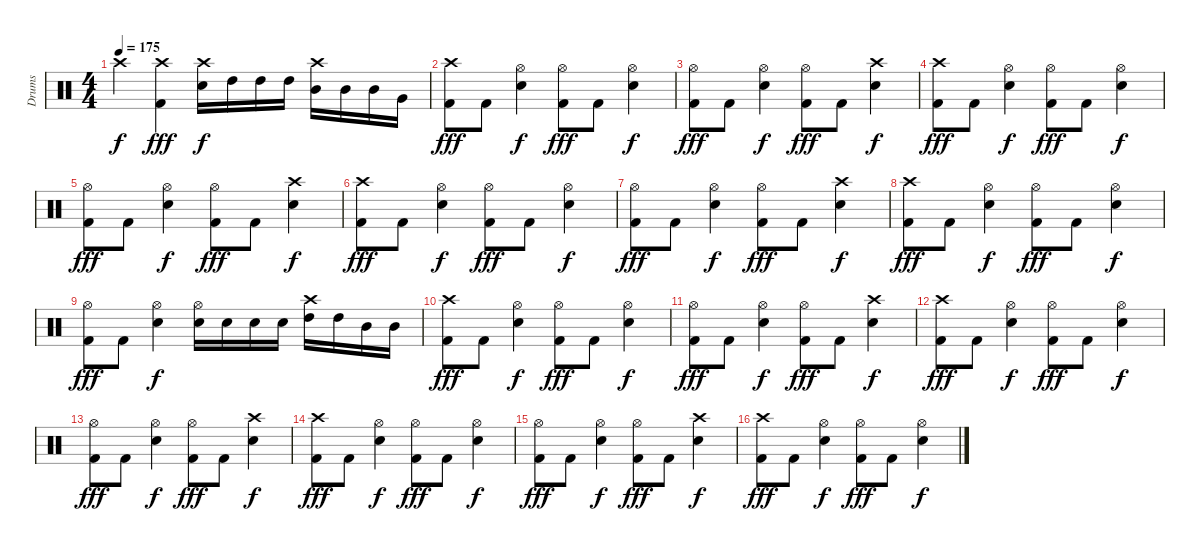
\track ("Drums" "Drums") {instrument percussion}
\staff {score}
\articulation defaults
\ts (4 4)
\tempo 175
\clef neutral
\ks c "Crash high (hit)".4{dy f}
("Crash high (hit)" "Kick (hit) 2").4{dy fff} ("Crash high (hit)" "Electric Snare (hit)").16{dy f} "High Tom (hit)".16 "High Tom (hit)".16 "High Tom (hit)".16 ("Crash high (hit)" "Mid Tom (hit)").16 "Mid Tom (hit)".16 "Mid Tom (hit)".16 "Very Low Tom (hit)".16 |
("Crash high (hit)" "Kick (hit) 2").8{dy fff} "Kick (hit) 2".8 ("Hi-Hat (open)" "Electric Snare (hit)").4{dy f} ("Hi-Hat (open)" "Kick (hit) 2").8{dy fff} "Kick (hit) 2".8 ("Hi-Hat (open)" "Electric Snare (hit)").4{dy f} |
("Hi-Hat (open)" "Kick (hit) 2").8{dy fff} "Kick (hit) 2".8 ("Hi-Hat (open)" "Electric Snare (hit)").4{dy f} ("Hi-Hat (open)" "Kick (hit) 2").8{dy fff} "Kick (hit) 2".8 ("Crash high (hit)" "Electric Snare (hit)").4{dy f} |
("Crash high (hit)" "Kick (hit) 2").8{dy fff} "Kick (hit) 2".8 ("Hi-Hat (open)" "Electric Snare (hit)").4{dy f} ("Hi-Hat (open)" "Kick (hit) 2").8{dy fff} "Kick (hit) 2".8 ("Hi-Hat (open)" "Electric Snare (hit)").4{dy f} |
("Hi-Hat (open)" "Kick (hit) 2").8{dy fff} "Kick (hit) 2".8 ("Hi-Hat (open)" "Electric Snare (hit)").4{dy f} ("Hi-Hat (open)" "Kick (hit) 2").8{dy fff} "Kick (hit) 2".8 ("Crash high (hit)" "Electric Snare (hit)").4{dy f} |
("Crash high (hit)" "Kick (hit) 2").8{dy fff} "Kick (hit) 2".8 ("Hi-Hat (open)" "Electric Snare (hit)").4{dy f} ("Hi-Hat (open)" "Kick (hit) 2").8{dy fff} "Kick (hit) 2".8 ("Hi-Hat (open)" "Electric Snare (hit)").4{dy f} |
("Hi-Hat (open)" "Kick (hit) 2").8{dy fff} "Kick (hit) 2".8 ("Hi-Hat (open)" "Electric Snare (hit)").4{dy f} ("Hi-Hat (open)" "Kick (hit) 2").8{dy fff} "Kick (hit) 2".8 ("Crash high (hit)" "Electric Snare (hit)").4{dy f} |
("Crash high (hit)" "Kick (hit) 2").8{dy fff} "Kick (hit) 2".8 ("Hi-Hat (open)" "Electric Snare (hit)").4{dy f} ("Hi-Hat (open)" "Kick (hit) 2").8{dy fff} "Kick (hit) 2".8 ("Hi-Hat (open)" "Electric Snare (hit)").4{dy f} |
("Hi-Hat (open)" "Kick (hit) 2").8{dy fff} "Kick (hit) 2".8 ("Hi-Hat (open)" "Electric Snare (hit)").4{dy f} ("Hi-Hat (open)" "Electric Snare (hit)").16 "Electric Snare (hit)".16 "Electric Snare (hit)".16 "Electric Snare (hit)".16 ("Crash high (hit)" "High Tom (hit)").16 "High Tom (hit)".16 "Mid Tom (hit)".16 "Mid Tom (hit)".16 |
("Crash high (hit)" "Kick (hit) 2").8{dy fff} "Kick (hit) 2".8 ("Hi-Hat (open)" "Electric Snare (hit)").4{dy f} ("Hi-Hat (open)" "Kick (hit) 2").8{dy fff} "Kick (hit) 2".8 ("Hi-Hat (open)" "Electric Snare (hit)").4{dy f} |
("Hi-Hat (open)" "Kick (hit) 2").8{dy fff} "Kick (hit) 2".8 ("Hi-Hat (open)" "Electric Snare (hit)").4{dy f} ("Hi-Hat (open)" "Kick (hit) 2").8{dy fff} "Kick (hit) 2".8 ("Crash high (hit)" "Electric Snare (hit)").4{dy f} |
("Crash high (hit)" "Kick (hit) 2").8{dy fff} "Kick (hit) 2".8 ("Hi-Hat (open)" "Electric Snare (hit)").4{dy f} ("Hi-Hat (open)" "Kick (hit) 2").8{dy fff} "Kick (hit) 2".8 ("Hi-Hat (open)" "Electric Snare (hit)").4{dy f} |
("Hi-Hat (open)" "Kick (hit) 2").8{dy fff} "Kick (hit) 2".8 ("Hi-Hat (open)" "Electric Snare (hit)").4{dy f} ("Hi-Hat (open)" "Kick (hit) 2").8{dy fff} "Kick (hit) 2".8 ("Crash high (hit)" "Electric Snare (hit)").4{dy f} |
("Crash high (hit)" "Kick (hit) 2").8{dy fff} "Kick (hit) 2".8 ("Hi-Hat (open)" "Electric Snare (hit)").4{dy f} ("Hi-Hat (open)" "Kick (hit) 2").8{dy fff} "Kick (hit) 2".8 ("Hi-Hat (open)" "Electric Snare (hit)").4{dy f} |
("Hi-Hat (open)" "Kick (hit) 2").8{dy fff} "Kick (hit) 2".8 ("Hi-Hat (open)" "Electric Snare (hit)").4{dy f} ("Hi-Hat (open)" "Kick (hit) 2").8{dy fff} "Kick (hit) 2".8 ("Crash high (hit)" "Electric Snare (hit)").4{dy f} |
("Crash high (hit)" "Kick (hit) 2").8{dy fff} "Kick (hit) 2".8 ("Hi-Hat (open)" "Electric Snare (hit)").4{dy f} ("Hi-Hat (open)" "Kick (hit) 2").8{dy fff} "Kick (hit) 2".8 ("Hi-Hat (open)" "Electric Snare (hit)").4{dy f}
